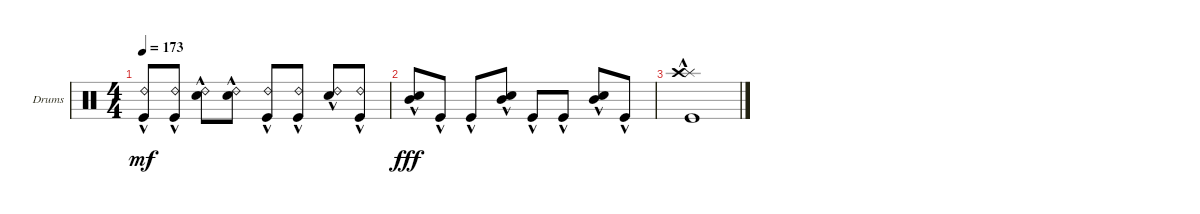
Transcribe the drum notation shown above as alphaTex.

\defaultSystemsLayout 4
\bracketExtendMode groupsimilarinstruments
\firstSystemTrackNameOrientation horizontal
\otherSystemsTrackNameOrientation horizontal
\track ("Drumkit" "Drums") {instrument percussion}
\staff {score}
\articulation defaults
\ts (4 4)
\tempo 173
\clef neutral
\ks c
("Kick (hit)"{hac} "Ride (bell) 2"{hac}).8{dy mf} ("Ride (bell) 2"{hac} "Kick (hit)"{hac}).8 ("Ride (bell) 2"{hac} "Snare (hit) 2"{hac}).8 ("Ride (bell) 2"{hac} "Snare (hit) 2"{hac}).8 ("Ride (bell) 2"{hac} "Kick (hit)"{hac}).8 ("Ride (bell) 2"{hac} "Kick (hit)"{hac}).8 ("Ride (bell) 2"{hac} "Snare (hit) 2"{hac}).8 ("Ride (bell) 2"{hac} "Kick (hit)"{hac}).8 |
("Snare (hit) 2"{hac} "Mid Tom (hit)"{hac}).8{dy fff} "Kick (hit)"{hac}.8 "Kick (hit)"{hac}.8 ("Snare (hit) 2"{hac} "Mid Tom (hit)"{hac}).8 "Kick (hit)"{hac}.8 "Kick (hit)"{hac}.8 ("Snare (hit) 2"{hac} "Mid Tom (hit)"{hac}).8 "Kick (hit)"{hac}.8 |
("Kick (hit)"{hac} "Splash (hit)"{hac} "Crash high (hit)"{hac}).1
